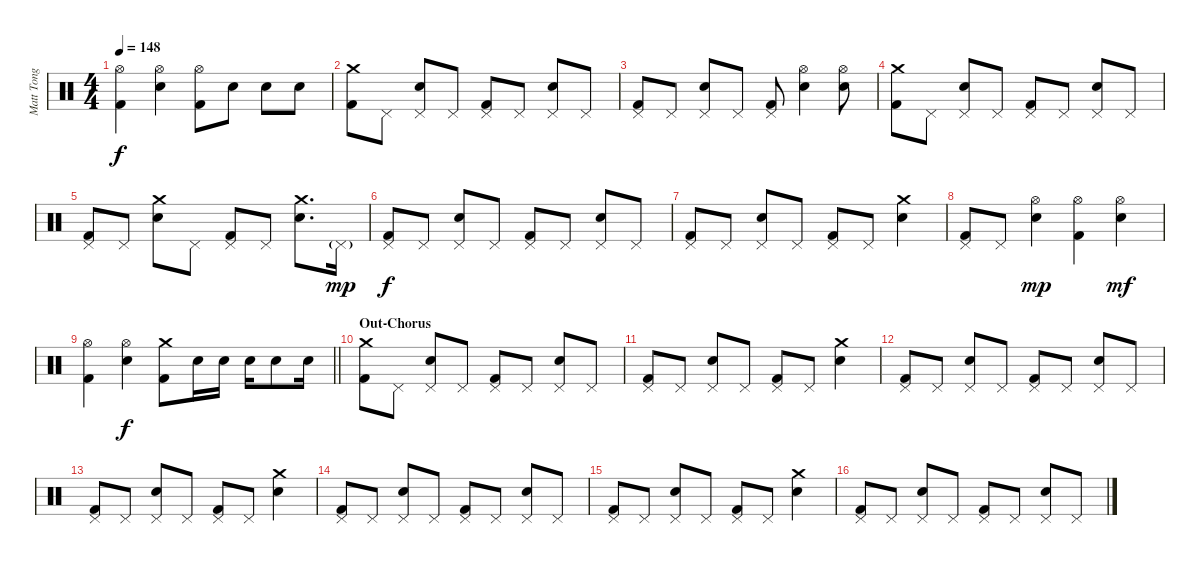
\track ("Matt Tong" "Matt Tong") {instrument percussion}
\staff {score}
\articulation defaults
\ts (4 4)
\tempo 148
\clef neutral
\ks c
("Hi-Hat (open)" "Kick (hit) 2").4{dy f} ("Hi-Hat (open)" "Electric Snare (hit)").4 ("Hi-Hat (open)" "Kick (hit) 2").8 "Electric Snare (hit)".8 "Electric Snare (hit)".8 "Electric Snare (hit)".8 |
("Crash medium (hit)" "Kick (hit) 2").8 "Pedal Hi-Hat (hit)".8 ("Pedal Hi-Hat (hit)" "Electric Snare (hit)").8 "Pedal Hi-Hat (hit)".8 ("Pedal Hi-Hat (hit)" "Kick (hit) 2").8 "Pedal Hi-Hat (hit)".8 ("Pedal Hi-Hat (hit)" "Electric Snare (hit)").8 "Pedal Hi-Hat (hit)".8 |
("Pedal Hi-Hat (hit)" "Kick (hit) 2").8 "Pedal Hi-Hat (hit)".8 ("Pedal Hi-Hat (hit)" "Electric Snare (hit)").8 "Pedal Hi-Hat (hit)".8 ("Pedal Hi-Hat (hit)" "Kick (hit) 2").8 ("Hi-Hat (open)" "Electric Snare (hit)").4 ("Hi-Hat (open)" "Electric Snare (hit)").8 |
("Crash medium (hit)" "Kick (hit) 2").8 "Pedal Hi-Hat (hit)".8 ("Pedal Hi-Hat (hit)" "Electric Snare (hit)").8 "Pedal Hi-Hat (hit)".8 ("Pedal Hi-Hat (hit)" "Kick (hit) 2").8 "Pedal Hi-Hat (hit)".8 ("Pedal Hi-Hat (hit)" "Electric Snare (hit)").8 "Pedal Hi-Hat (hit)".8 |
("Pedal Hi-Hat (hit)" "Kick (hit) 2").8 "Pedal Hi-Hat (hit)".8 ("Crash medium (hit)" "Electric Snare (hit)").8 "Pedal Hi-Hat (hit)".8 ("Pedal Hi-Hat (hit)" "Kick (hit) 2").8 "Pedal Hi-Hat (hit)".8 ("Crash medium (hit)" "Electric Snare (hit)").8{d} "Pedal Hi-Hat (hit)"{g}.16{dy mp} |
("Pedal Hi-Hat (hit)" "Kick (hit) 2").8{dy f} "Pedal Hi-Hat (hit)".8 ("Pedal Hi-Hat (hit)" "Electric Snare (hit)").8 "Pedal Hi-Hat (hit)".8 ("Pedal Hi-Hat (hit)" "Kick (hit) 2").8 "Pedal Hi-Hat (hit)".8 ("Pedal Hi-Hat (hit)" "Electric Snare (hit)").8 "Pedal Hi-Hat (hit)".8 |
("Pedal Hi-Hat (hit)" "Kick (hit) 2").8 "Pedal Hi-Hat (hit)".8 ("Pedal Hi-Hat (hit)" "Electric Snare (hit)").8 "Pedal Hi-Hat (hit)".8 ("Pedal Hi-Hat (hit)" "Kick (hit) 2").8 "Pedal Hi-Hat (hit)".8 ("Crash medium (hit)" "Electric Snare (hit)").4 |
("Pedal Hi-Hat (hit)" "Kick (hit) 2").8 "Pedal Hi-Hat (hit)".8 ("Hi-Hat (open)" "Electric Snare (hit)").4{dy mp} ("Hi-Hat (open)" "Kick (hit) 2").4 ("Hi-Hat (open)" "Electric Snare (hit)").4{dy mf} |
\barLineRight lightlight
("Hi-Hat (open)" "Kick (hit) 2").4 ("Hi-Hat (open)" "Electric Snare (hit)").4{dy f} ("Crash medium (hit)" "Kick (hit) 2").8 "Electric Snare (hit)".16 "Electric Snare (hit)".16 "Electric Snare (hit)".16 "Electric Snare (hit)".8 "Electric Snare (hit)".16 |
\section ("" "Out-Chorus")
("Crash medium (hit)" "Kick (hit) 2").8 "Pedal Hi-Hat (hit)".8 ("Pedal Hi-Hat (hit)" "Electric Snare (hit)").8 "Pedal Hi-Hat (hit)".8 ("Pedal Hi-Hat (hit)" "Kick (hit) 2").8 "Pedal Hi-Hat (hit)".8 ("Pedal Hi-Hat (hit)" "Electric Snare (hit)").8 "Pedal Hi-Hat (hit)".8 |
("Pedal Hi-Hat (hit)" "Kick (hit) 2").8 "Pedal Hi-Hat (hit)".8 ("Pedal Hi-Hat (hit)" "Electric Snare (hit)").8 "Pedal Hi-Hat (hit)".8 ("Pedal Hi-Hat (hit)" "Kick (hit) 2").8 "Pedal Hi-Hat (hit)".8 ("Crash medium (hit)" "Electric Snare (hit)").4 |
("Pedal Hi-Hat (hit)" "Kick (hit) 2").8 "Pedal Hi-Hat (hit)".8 ("Pedal Hi-Hat (hit)" "Electric Snare (hit)").8 "Pedal Hi-Hat (hit)".8 ("Pedal Hi-Hat (hit)" "Kick (hit) 2").8 "Pedal Hi-Hat (hit)".8 ("Pedal Hi-Hat (hit)" "Electric Snare (hit)").8 "Pedal Hi-Hat (hit)".8 |
("Pedal Hi-Hat (hit)" "Kick (hit) 2").8 "Pedal Hi-Hat (hit)".8 ("Pedal Hi-Hat (hit)" "Electric Snare (hit)").8 "Pedal Hi-Hat (hit)".8 ("Pedal Hi-Hat (hit)" "Kick (hit) 2").8 "Pedal Hi-Hat (hit)".8 ("Crash medium (hit)" "Electric Snare (hit)").4 |
("Pedal Hi-Hat (hit)" "Kick (hit) 2").8 "Pedal Hi-Hat (hit)".8 ("Pedal Hi-Hat (hit)" "Electric Snare (hit)").8 "Pedal Hi-Hat (hit)".8 ("Pedal Hi-Hat (hit)" "Kick (hit) 2").8 "Pedal Hi-Hat (hit)".8 ("Pedal Hi-Hat (hit)" "Electric Snare (hit)").8 "Pedal Hi-Hat (hit)".8 |
("Pedal Hi-Hat (hit)" "Kick (hit) 2").8 "Pedal Hi-Hat (hit)".8 ("Pedal Hi-Hat (hit)" "Electric Snare (hit)").8 "Pedal Hi-Hat (hit)".8 ("Pedal Hi-Hat (hit)" "Kick (hit) 2").8 "Pedal Hi-Hat (hit)".8 ("Crash medium (hit)" "Electric Snare (hit)").4 |
("Pedal Hi-Hat (hit)" "Kick (hit) 2").8 "Pedal Hi-Hat (hit)".8 ("Pedal Hi-Hat (hit)" "Electric Snare (hit)").8 "Pedal Hi-Hat (hit)".8 ("Pedal Hi-Hat (hit)" "Kick (hit) 2").8 "Pedal Hi-Hat (hit)".8 ("Pedal Hi-Hat (hit)" "Electric Snare (hit)").8 "Pedal Hi-Hat (hit)".8
